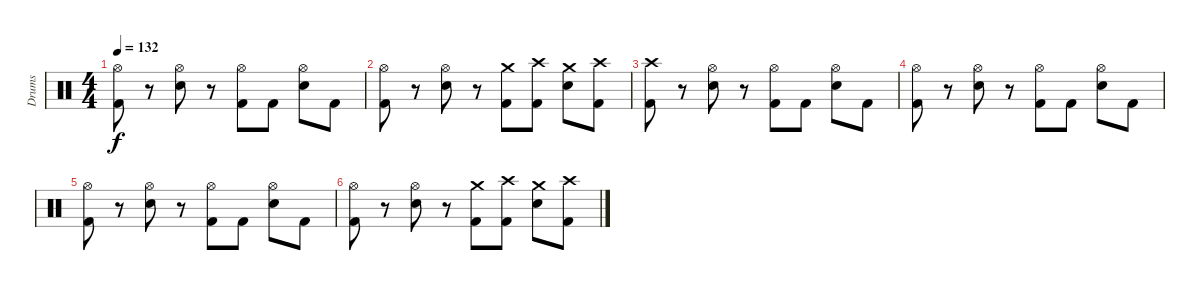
\track ("Drums" "Drums") {instrument percussion}
\staff {score}
\articulation defaults
\ts (4 4)
\tempo 132
\clef neutral
\ks c
("Hi-Hat (open)" "Kick (hit) 2").8{dy f} r.8 ("Hi-Hat (open)" "Electric Snare (hit)").8 r.8 ("Hi-Hat (open)" "Kick (hit) 2").8 "Kick (hit) 2".8 ("Hi-Hat (open)" "Electric Snare (hit)").8 "Kick (hit) 2".8 |
("Hi-Hat (open)" "Kick (hit) 2").8 r.8 ("Hi-Hat (open)" "Electric Snare (hit)").8 r.8 ("Crash medium (hit)" "Kick (hit) 2").8 ("Crash high (hit)" "Kick (hit) 2").8 ("Crash medium (hit)" "Electric Snare (hit)").8 ("Crash high (hit)" "Kick (hit) 2").8 |
("Crash high (hit)" "Kick (hit) 2").8 r.8 ("Hi-Hat (open)" "Electric Snare (hit)").8 r.8 ("Hi-Hat (open)" "Kick (hit) 2").8 "Kick (hit) 2".8 ("Hi-Hat (open)" "Electric Snare (hit)").8 "Kick (hit) 2".8 |
("Hi-Hat (open)" "Kick (hit) 2").8 r.8 ("Hi-Hat (open)" "Electric Snare (hit)").8 r.8 ("Hi-Hat (open)" "Kick (hit) 2").8 "Kick (hit) 2".8 ("Hi-Hat (open)" "Electric Snare (hit)").8 "Kick (hit) 2".8 |
("Hi-Hat (open)" "Kick (hit) 2").8 r.8 ("Hi-Hat (open)" "Electric Snare (hit)").8 r.8 ("Hi-Hat (open)" "Kick (hit) 2").8 "Kick (hit) 2".8 ("Hi-Hat (open)" "Electric Snare (hit)").8 "Kick (hit) 2".8 |
("Hi-Hat (open)" "Kick (hit) 2").8 r.8 ("Hi-Hat (open)" "Electric Snare (hit)").8 r.8 ("Crash medium (hit)" "Kick (hit) 2").8 ("Crash high (hit)" "Kick (hit) 2").8 ("Crash medium (hit)" "Electric Snare (hit)").8 ("Crash high (hit)" "Kick (hit) 2").8
